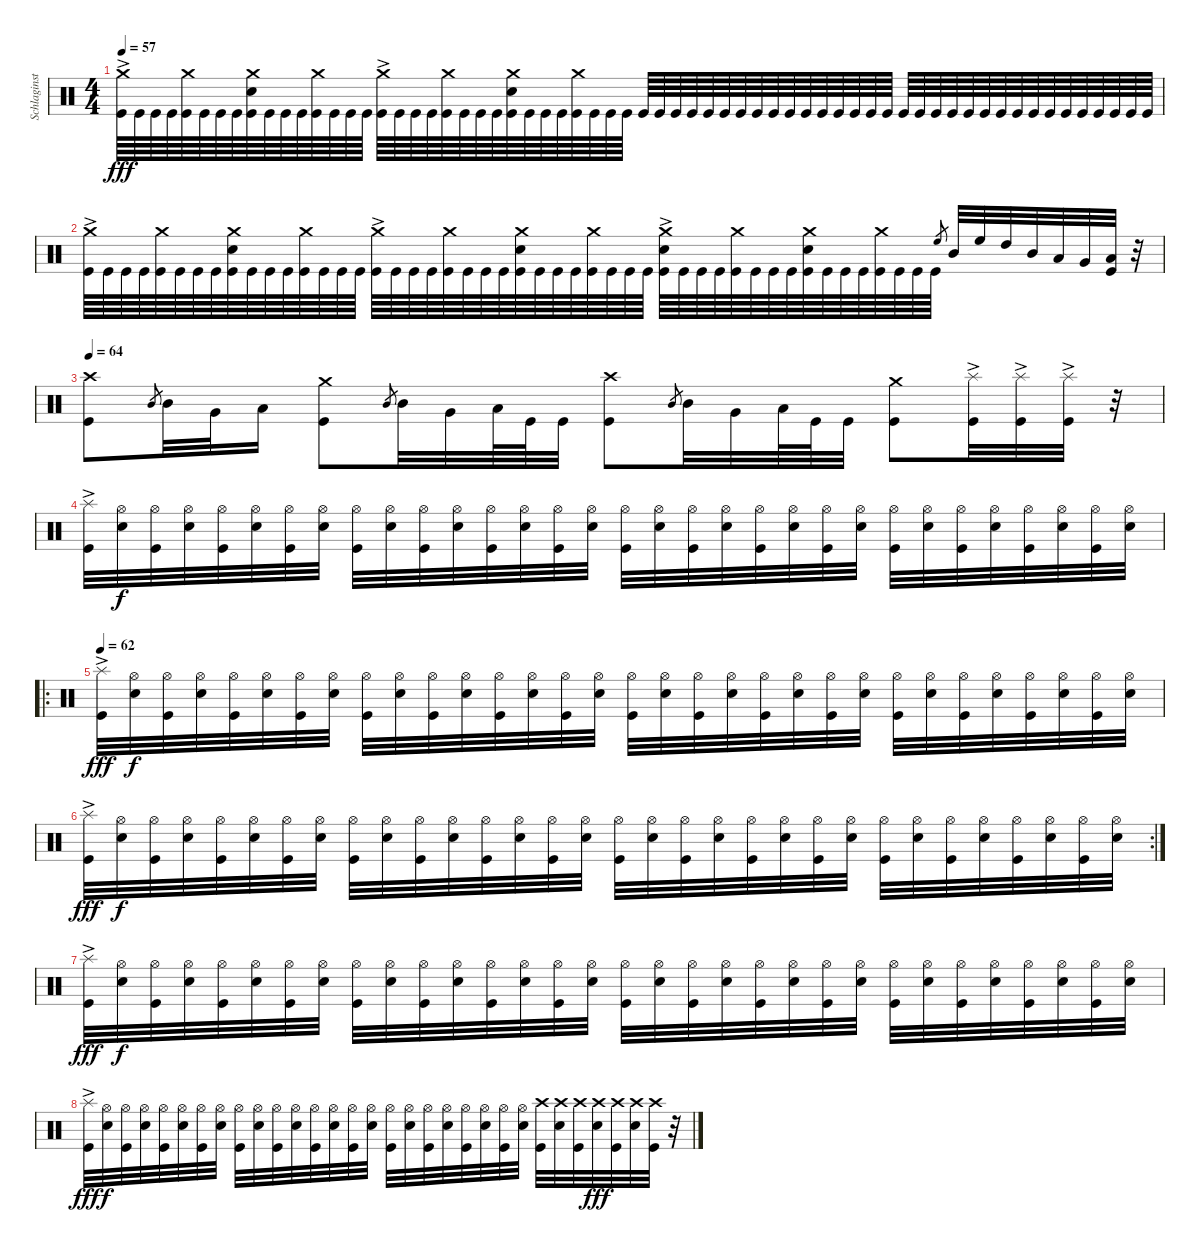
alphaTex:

\track ("Schlaginstrumente - Auswahl" "Schlaginst") {instrument percussion}
\staff {score}
\articulation defaults
\ts (4 4)
\tempo 57
\clef neutral
\ks c
("Crash medium (hit)"{ac} "Kick (hit)").64{dy fff} "Kick (hit)".64 "Kick (hit)".64 "Kick (hit)".64 ("Crash medium (hit)" "Kick (hit)").64 "Kick (hit)".64 "Kick (hit)".64 "Kick (hit)".64 ("Crash medium (hit)" "Snare (hit) 2" "Kick (hit)").64 "Kick (hit)".64 "Kick (hit)".64 "Kick (hit)".64 ("Crash medium (hit)" "Kick (hit)").64 "Kick (hit)".64 "Kick (hit)".64 "Kick (hit)".64 ("Crash medium (hit)"{ac} "Kick (hit)").64 "Kick (hit)".64 "Kick (hit)".64 "Kick (hit)".64 ("Crash medium (hit)" "Kick (hit)").64 "Kick (hit)".64 "Kick (hit)".64 "Kick (hit)".64 ("Crash medium (hit)" "Snare (hit) 2" "Kick (hit)").64 "Kick (hit)".64 "Kick (hit)".64 "Kick (hit)".64 ("Crash medium (hit)" "Kick (hit)").64 "Kick (hit)".64 "Kick (hit)".64 "Kick (hit)".64 "Kick (hit)".64 "Kick (hit)".64 "Kick (hit)".64 "Kick (hit)".64 "Kick (hit)".64 "Kick (hit)".64 "Kick (hit)".64 "Kick (hit)".64 "Kick (hit)".64 "Kick (hit)".64 "Kick (hit)".64 "Kick (hit)".64 "Kick (hit)".64 "Kick (hit)".64 "Kick (hit)".64 "Kick (hit)".64 "Kick (hit)".64 "Kick (hit)".64 "Kick (hit)".64 "Kick (hit)".64 "Kick (hit)".64 "Kick (hit)".64 "Kick (hit)".64 "Kick (hit)".64 "Kick (hit)".64 "Kick (hit)".64 "Kick (hit)".64 "Kick (hit)".64 "Kick (hit)".64 "Kick (hit)".64 "Kick (hit)".64 "Kick (hit)".64 |
("Crash medium (hit)"{ac} "Kick (hit)").64 "Kick (hit)".64 "Kick (hit)".64 "Kick (hit)".64 ("Crash medium (hit)" "Kick (hit)").64 "Kick (hit)".64 "Kick (hit)".64 "Kick (hit)".64 ("Crash medium (hit)" "Snare (hit) 2" "Kick (hit)").64 "Kick (hit)".64 "Kick (hit)".64 "Kick (hit)".64 ("Crash medium (hit)" "Kick (hit)").64 "Kick (hit)".64 "Kick (hit)".64 "Kick (hit)".64 ("Crash medium (hit)"{ac} "Kick (hit)").64 "Kick (hit)".64 "Kick (hit)".64 "Kick (hit)".64 ("Crash medium (hit)" "Kick (hit)").64 "Kick (hit)".64 "Kick (hit)".64 "Kick (hit)".64 ("Crash medium (hit)" "Snare (hit) 2" "Kick (hit)").64 "Kick (hit)".64 "Kick (hit)".64 "Kick (hit)".64 ("Crash medium (hit)" "Kick (hit)").64 "Kick (hit)".64 "Kick (hit)".64 "Kick (hit)".64 ("Crash medium (hit)"{ac} "Snare (hit) 2" "Kick (hit)").64 "Kick (hit)".64 "Kick (hit)".64 "Kick (hit)".64 ("Crash medium (hit)" "Kick (hit)").64 "Kick (hit)".64 "Kick (hit)".64 "Kick (hit)".64 ("Crash medium (hit)" "Snare (hit) 2" "Kick (hit)").64 "Kick (hit)".64 "Kick (hit)".64 "Kick (hit)".64 ("Crash medium (hit)" "Kick (hit)").64 "Kick (hit)".64 "Kick (hit)".64 "Kick (hit)".64 "High Floor Tom (hit)".8{gr} "Mid Tom (hit)".32 "High Floor Tom (hit)".32 "High Tom (hit)".32 "Mid Tom (hit)".32 "Low Tom (hit)".32 "Very Low Tom (hit)".32 ("Kick (hit)" "Low Floor Tom (hit)").32 r.32 |
\tempo 61
\tempo 64
("Crash high (hit)" "Kick (hit)").8 "Mid Tom (hit)".8{gr} "Mid Tom (hit)".32 "Very Low Tom (hit)".32 "Low Floor Tom (hit)".16 ("Crash medium (hit)" "Kick (hit)").8 "Mid Tom (hit)".8{gr} "Mid Tom (hit)".32 "Very Low Tom (hit)".32 "Low Floor Tom (hit)".64 "Kick (hit)".64 "Kick (hit)".32 ("Crash high (hit)" "Kick (hit)").8 "Mid Tom (hit)".8{gr} "Mid Tom (hit)".32 "Very Low Tom (hit)".32 "Low Floor Tom (hit)".64 "Kick (hit)".64 "Kick (hit)".32 ("Crash medium (hit)" "Kick (hit)").8 ("Splash (hit)"{ac} "Kick (hit)"{ac}).32 ("Splash (hit)"{ac} "Kick (hit)"{ac}).32 ("Splash (hit)"{ac} "Kick (hit)"{ac}).32 r.32 |
("Kick (hit)" "Splash (hit)"{ac}).32 ("Hi-Hat (open)" "Snare (hit) 2").32{dy f} ("Hi-Hat (open)" "Kick (hit)").32 ("Hi-Hat (open)" "Snare (hit) 2").32 ("Hi-Hat (open)" "Kick (hit)").32 ("Hi-Hat (open)" "Snare (hit) 2").32 ("Hi-Hat (open)" "Kick (hit)").32 ("Hi-Hat (open)" "Snare (hit) 2").32 ("Hi-Hat (open)" "Kick (hit)").32 ("Hi-Hat (open)" "Snare (hit) 2").32 ("Hi-Hat (open)" "Kick (hit)").32 ("Hi-Hat (open)" "Snare (hit) 2").32 ("Hi-Hat (open)" "Kick (hit)").32 ("Hi-Hat (open)" "Snare (hit) 2").32 ("Hi-Hat (open)" "Kick (hit)").32 ("Hi-Hat (open)" "Snare (hit) 2").32 ("Hi-Hat (open)" "Kick (hit)").32 ("Hi-Hat (open)" "Snare (hit) 2").32 ("Hi-Hat (open)" "Kick (hit)").32 ("Hi-Hat (open)" "Snare (hit) 2").32 ("Hi-Hat (open)" "Kick (hit)").32 ("Hi-Hat (open)" "Snare (hit) 2").32 ("Hi-Hat (open)" "Kick (hit)").32 ("Hi-Hat (open)" "Snare (hit) 2").32 ("Hi-Hat (open)" "Kick (hit)").32 ("Hi-Hat (open)" "Snare (hit) 2").32 ("Hi-Hat (open)" "Kick (hit)").32 ("Hi-Hat (open)" "Snare (hit) 2").32 ("Hi-Hat (open)" "Kick (hit)").32 ("Hi-Hat (open)" "Snare (hit) 2").32 ("Hi-Hat (open)" "Kick (hit)").32 ("Hi-Hat (open)" "Snare (hit) 2").32 |
\ro
\tempo 62
("Kick (hit)" "Splash (hit)"{ac}).32{dy fff} ("Hi-Hat (open)" "Snare (hit) 2").32{dy f} ("Hi-Hat (open)" "Kick (hit)").32 ("Hi-Hat (open)" "Snare (hit) 2").32 ("Hi-Hat (open)" "Kick (hit)").32 ("Hi-Hat (open)" "Snare (hit) 2").32 ("Hi-Hat (open)" "Kick (hit)").32 ("Hi-Hat (open)" "Snare (hit) 2").32 ("Hi-Hat (open)" "Kick (hit)").32 ("Hi-Hat (open)" "Snare (hit) 2").32 ("Hi-Hat (open)" "Kick (hit)").32 ("Hi-Hat (open)" "Snare (hit) 2").32 ("Hi-Hat (open)" "Kick (hit)").32 ("Hi-Hat (open)" "Snare (hit) 2").32 ("Hi-Hat (open)" "Kick (hit)").32 ("Hi-Hat (open)" "Snare (hit) 2").32 ("Hi-Hat (open)" "Kick (hit)").32 ("Hi-Hat (open)" "Snare (hit) 2").32 ("Hi-Hat (open)" "Kick (hit)").32 ("Hi-Hat (open)" "Snare (hit) 2").32 ("Hi-Hat (open)" "Kick (hit)").32 ("Hi-Hat (open)" "Snare (hit) 2").32 ("Hi-Hat (open)" "Kick (hit)").32 ("Hi-Hat (open)" "Snare (hit) 2").32 ("Hi-Hat (open)" "Kick (hit)").32 ("Hi-Hat (open)" "Snare (hit) 2").32 ("Hi-Hat (open)" "Kick (hit)").32 ("Hi-Hat (open)" "Snare (hit) 2").32 ("Hi-Hat (open)" "Kick (hit)").32 ("Hi-Hat (open)" "Snare (hit) 2").32 ("Hi-Hat (open)" "Kick (hit)").32 ("Hi-Hat (open)" "Snare (hit) 2").32 |
\rc 2
("Kick (hit)" "Splash (hit)"{ac}).32{dy fff} ("Hi-Hat (open)" "Snare (hit) 2").32{dy f} ("Hi-Hat (open)" "Kick (hit)").32 ("Hi-Hat (open)" "Snare (hit) 2").32 ("Hi-Hat (open)" "Kick (hit)").32 ("Hi-Hat (open)" "Snare (hit) 2").32 ("Hi-Hat (open)" "Kick (hit)").32 ("Hi-Hat (open)" "Snare (hit) 2").32 ("Hi-Hat (open)" "Kick (hit)").32 ("Hi-Hat (open)" "Snare (hit) 2").32 ("Hi-Hat (open)" "Kick (hit)").32 ("Hi-Hat (open)" "Snare (hit) 2").32 ("Hi-Hat (open)" "Kick (hit)").32 ("Hi-Hat (open)" "Snare (hit) 2").32 ("Hi-Hat (open)" "Kick (hit)").32 ("Hi-Hat (open)" "Snare (hit) 2").32 ("Hi-Hat (open)" "Kick (hit)").32 ("Hi-Hat (open)" "Snare (hit) 2").32 ("Hi-Hat (open)" "Kick (hit)").32 ("Hi-Hat (open)" "Snare (hit) 2").32 ("Hi-Hat (open)" "Kick (hit)").32 ("Hi-Hat (open)" "Snare (hit) 2").32 ("Hi-Hat (open)" "Kick (hit)").32 ("Hi-Hat (open)" "Snare (hit) 2").32 ("Hi-Hat (open)" "Kick (hit)").32 ("Hi-Hat (open)" "Snare (hit) 2").32 ("Hi-Hat (open)" "Kick (hit)").32 ("Hi-Hat (open)" "Snare (hit) 2").32 ("Hi-Hat (open)" "Kick (hit)").32 ("Hi-Hat (open)" "Snare (hit) 2").32 ("Hi-Hat (open)" "Kick (hit)").32 ("Hi-Hat (open)" "Snare (hit) 2").32 |
("Kick (hit)" "Splash (hit)"{ac}).32{dy fff} ("Hi-Hat (open)" "Snare (hit) 2").32{dy f} ("Hi-Hat (open)" "Kick (hit)").32 ("Hi-Hat (open)" "Snare (hit) 2").32 ("Hi-Hat (open)" "Kick (hit)").32 ("Hi-Hat (open)" "Snare (hit) 2").32 ("Hi-Hat (open)" "Kick (hit)").32 ("Hi-Hat (open)" "Snare (hit) 2").32 ("Hi-Hat (open)" "Kick (hit)").32 ("Hi-Hat (open)" "Snare (hit) 2").32 ("Hi-Hat (open)" "Kick (hit)").32 ("Hi-Hat (open)" "Snare (hit) 2").32 ("Hi-Hat (open)" "Kick (hit)").32 ("Hi-Hat (open)" "Snare (hit) 2").32 ("Hi-Hat (open)" "Kick (hit)").32 ("Hi-Hat (open)" "Snare (hit) 2").32 ("Hi-Hat (open)" "Kick (hit)").32 ("Hi-Hat (open)" "Snare (hit) 2").32 ("Hi-Hat (open)" "Kick (hit)").32 ("Hi-Hat (open)" "Snare (hit) 2").32 ("Hi-Hat (open)" "Kick (hit)").32 ("Hi-Hat (open)" "Snare (hit) 2").32 ("Hi-Hat (open)" "Kick (hit)").32 ("Hi-Hat (open)" "Snare (hit) 2").32 ("Hi-Hat (open)" "Kick (hit)").32 ("Hi-Hat (open)" "Snare (hit) 2").32 ("Hi-Hat (open)" "Kick (hit)").32 ("Hi-Hat (open)" "Snare (hit) 2").32 ("Hi-Hat (open)" "Kick (hit)").32 ("Hi-Hat (open)" "Snare (hit) 2").32 ("Hi-Hat (open)" "Kick (hit)").32 ("Hi-Hat (open)" "Snare (hit) 2").32 |
("Kick (hit)" "Splash (hit)"{ac}).32{dy fff} ("Hi-Hat (open)" "Snare (hit) 2").32{dy f} ("Hi-Hat (open)" "Kick (hit)").32 ("Hi-Hat (open)" "Snare (hit) 2").32 ("Hi-Hat (open)" "Kick (hit)").32 ("Hi-Hat (open)" "Snare (hit) 2").32 ("Hi-Hat (open)" "Kick (hit)").32 ("Hi-Hat (open)" "Snare (hit) 2").32 ("Hi-Hat (open)" "Kick (hit)").32 ("Hi-Hat (open)" "Snare (hit) 2").32 ("Hi-Hat (open)" "Kick (hit)").32 ("Hi-Hat (open)" "Snare (hit) 2").32 ("Hi-Hat (open)" "Kick (hit)").32 ("Hi-Hat (open)" "Snare (hit) 2").32 ("Hi-Hat (open)" "Kick (hit)").32 ("Hi-Hat (open)" "Snare (hit) 2").32 ("Hi-Hat (open)" "Kick (hit)").32 ("Hi-Hat (open)" "Snare (hit) 2").32 ("Hi-Hat (open)" "Kick (hit)").32 ("Hi-Hat (open)" "Snare (hit) 2").32 ("Hi-Hat (open)" "Kick (hit)").32 ("Hi-Hat (open)" "Snare (hit) 2").32 ("Hi-Hat (open)" "Kick (hit)").32 ("Hi-Hat (open)" "Snare (hit) 2").32 ("Crash high (hit)" "Kick (hit)").32 ("Crash high (hit)" "Snare (hit) 2").32 ("Crash high (hit)" "Kick (hit)").32 ("Crash high (hit)" "Snare (hit) 2").32{dy fff} ("Crash high (hit)" "Kick (hit)").32 ("Crash high (hit)" "Snare (hit) 2").32 ("Crash high (hit)" "Kick (hit)").32 r.32
